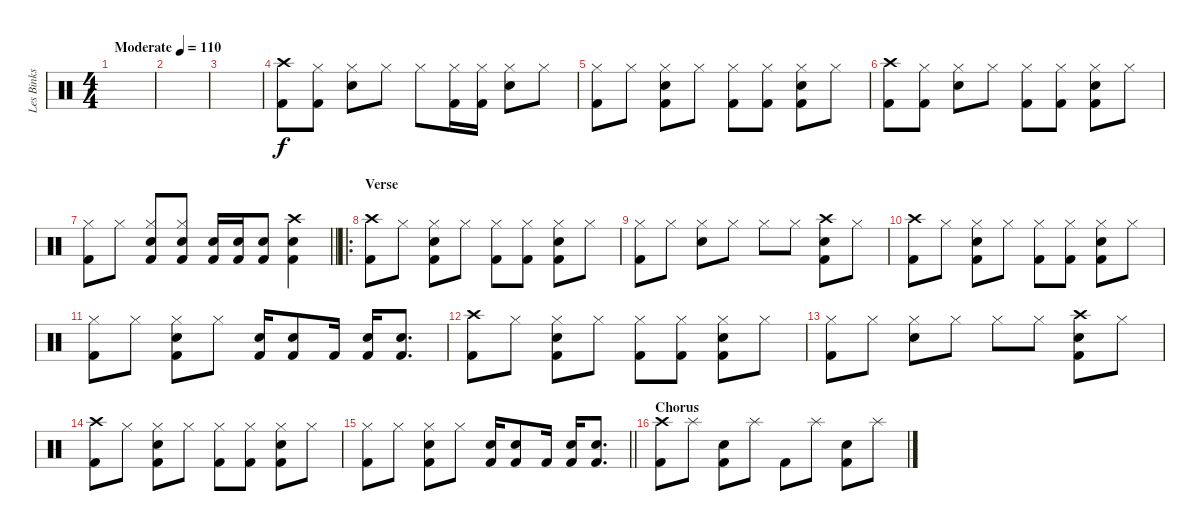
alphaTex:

\track ("Les Binks" "Les Binks") {instrument percussion}
\staff {score}
\articulation defaults
\ts (4 4)
\tempo (110 "Moderate")
\clef neutral
\ks c
|
|
|
("Crash high (hit)" "Kick (hit) 2").8 ("Hi-Hat (closed)" "Kick (hit) 2").8 ("Hi-Hat (closed)" "Snare (hit) 2").8 "Hi-Hat (closed)".8 "Hi-Hat (closed)".8 ("Hi-Hat (closed)" "Kick (hit) 2").16 ("Hi-Hat (closed)" "Kick (hit) 2").16 ("Hi-Hat (closed)" "Snare (hit) 2").8 "Hi-Hat (closed)".8 |
("Hi-Hat (closed)" "Kick (hit) 2").8 "Hi-Hat (closed)".8 ("Hi-Hat (closed)" "Snare (hit) 2" "Kick (hit) 2").8 "Hi-Hat (closed)".8 ("Hi-Hat (closed)" "Kick (hit) 2").8 ("Hi-Hat (closed)" "Kick (hit) 2").8 ("Hi-Hat (closed)" "Snare (hit) 2" "Kick (hit) 2").8 "Hi-Hat (closed)".8 |
("Crash high (hit)" "Kick (hit) 2").8 ("Hi-Hat (closed)" "Kick (hit) 2").8 ("Hi-Hat (closed)" "Snare (hit) 2").8 "Hi-Hat (closed)".8 ("Hi-Hat (closed)" "Kick (hit) 2").8 ("Hi-Hat (closed)" "Kick (hit) 2").8 ("Hi-Hat (closed)" "Snare (hit) 2" "Kick (hit) 2").8 "Hi-Hat (closed)".8 |
\barLineRight lightlight
("Hi-Hat (closed)" "Kick (hit) 2").8 "Hi-Hat (closed)".8 ("Hi-Hat (closed)" "Snare (hit) 2" "Kick (hit) 2").8 ("Hi-Hat (closed)" "Snare (hit) 2" "Kick (hit) 2").8 ("Snare (hit) 2" "Kick (hit) 2").16 ("Snare (hit) 2" "Kick (hit) 2").16 ("Snare (hit) 2" "Kick (hit) 2").8 ("Crash high (hit)" "Snare (hit) 2" "Kick (hit) 2").4 |
\ro
\section ("" "Verse ")
("Crash high (hit)" "Kick (hit) 2").8 "Hi-Hat (closed)".8 ("Hi-Hat (closed)" "Snare (hit) 2" "Kick (hit) 2").8 "Hi-Hat (closed)".8 ("Hi-Hat (closed)" "Kick (hit) 2").8 ("Hi-Hat (closed)" "Kick (hit) 2").8 ("Hi-Hat (closed)" "Snare (hit) 2" "Kick (hit) 2").8 "Hi-Hat (closed)".8 |
("Hi-Hat (closed)" "Kick (hit) 2").8 "Hi-Hat (closed)".8 ("Hi-Hat (closed)" "Snare (hit) 2").8 "Hi-Hat (closed)".8 "Hi-Hat (closed)".8 "Hi-Hat (closed)".8 ("Crash high (hit)" "Snare (hit) 2" "Kick (hit) 2").8 "Hi-Hat (closed)".8 |
("Crash high (hit)" "Kick (hit) 2").8 "Hi-Hat (closed)".8 ("Hi-Hat (closed)" "Snare (hit) 2" "Kick (hit) 2").8 "Hi-Hat (closed)".8 ("Hi-Hat (closed)" "Kick (hit) 2").8 ("Hi-Hat (closed)" "Kick (hit) 2").8 ("Hi-Hat (closed)" "Snare (hit) 2" "Kick (hit) 2").8 "Hi-Hat (closed)".8 |
("Hi-Hat (closed)" "Kick (hit) 2").8 "Hi-Hat (closed)".8 ("Hi-Hat (closed)" "Snare (hit) 2" "Kick (hit) 2").8 "Hi-Hat (closed)".8 ("Snare (hit) 2" "Kick (hit) 2").16 ("Snare (hit) 2" "Kick (hit) 2").8 "Kick (hit) 2".16 ("Snare (hit) 2" "Kick (hit) 2").16 ("Snare (hit) 2" "Kick (hit) 2").8{d} |
("Crash high (hit)" "Kick (hit) 2").8 "Hi-Hat (closed)".8 ("Hi-Hat (closed)" "Snare (hit) 2" "Kick (hit) 2").8 "Hi-Hat (closed)".8 ("Hi-Hat (closed)" "Kick (hit) 2").8 ("Hi-Hat (closed)" "Kick (hit) 2").8 ("Hi-Hat (closed)" "Snare (hit) 2" "Kick (hit) 2").8 "Hi-Hat (closed)".8 |
("Hi-Hat (closed)" "Kick (hit) 2").8 "Hi-Hat (closed)".8 ("Hi-Hat (closed)" "Snare (hit) 2").8 "Hi-Hat (closed)".8 "Hi-Hat (closed)".8 "Hi-Hat (closed)".8 ("Crash high (hit)" "Snare (hit) 2" "Kick (hit) 2").8 "Hi-Hat (closed)".8 |
("Crash high (hit)" "Kick (hit) 2").8 "Hi-Hat (closed)".8 ("Hi-Hat (closed)" "Snare (hit) 2" "Kick (hit) 2").8 "Hi-Hat (closed)".8 ("Hi-Hat (closed)" "Kick (hit) 2").8 ("Hi-Hat (closed)" "Kick (hit) 2").8 ("Hi-Hat (closed)" "Snare (hit) 2" "Kick (hit) 2").8 "Hi-Hat (closed)".8 |
\barLineRight lightlight
("Hi-Hat (closed)" "Kick (hit) 2").8 "Hi-Hat (closed)".8 ("Hi-Hat (closed)" "Snare (hit) 2" "Kick (hit) 2").8 "Hi-Hat (closed)".8 ("Snare (hit) 2" "Kick (hit) 2").16 ("Snare (hit) 2" "Kick (hit) 2").8 "Kick (hit) 2".16 ("Snare (hit) 2" "Kick (hit) 2").16 ("Snare (hit) 2" "Kick (hit) 2").8{d} |
\section ("" "Chorus ")
("Crash high (hit)" "Kick (hit) 2").8 "Splash (hit)".8 ("Snare (hit) 2" "Kick (hit) 2").8 "Splash (hit)".8 "Kick (hit) 2".8 "Splash (hit)".8 ("Snare (hit) 2" "Kick (hit) 2").8 "Splash (hit)".8
